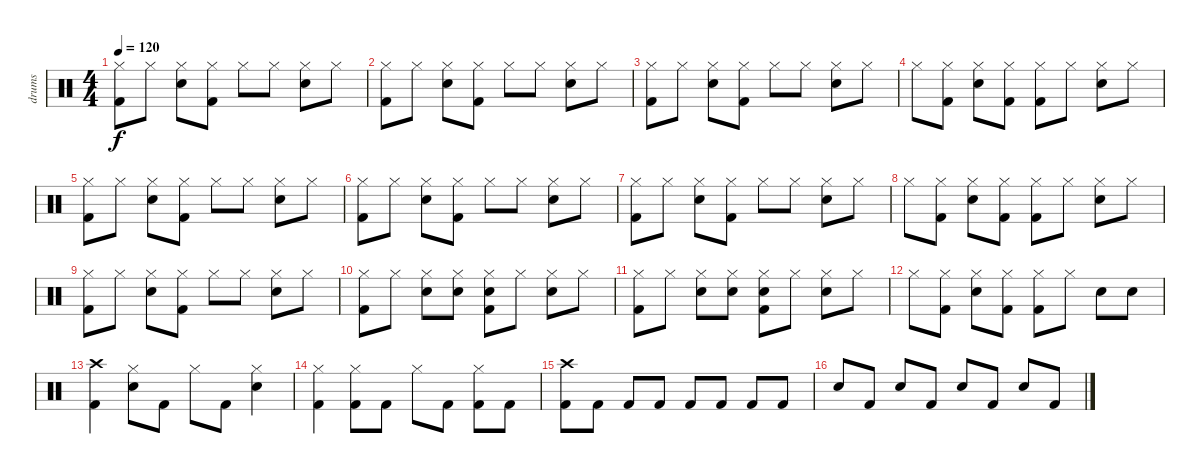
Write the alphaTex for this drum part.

\track ("drums" "drums") {instrument percussion}
\staff {score}
\articulation defaults
\ts (4 4)
\tempo 120
\clef neutral
\ks c
("Kick (hit) 2" "Hi-Hat (closed)").8{dy f} "Hi-Hat (closed)".8 ("Hi-Hat (closed)" "Snare (hit) 2").8 ("Hi-Hat (closed)" "Kick (hit) 2").8 "Hi-Hat (closed)".8 "Hi-Hat (closed)".8 ("Hi-Hat (closed)" "Snare (hit) 2").8 "Hi-Hat (closed)".8 |
("Kick (hit) 2" "Hi-Hat (closed)").8 "Hi-Hat (closed)".8 ("Hi-Hat (closed)" "Snare (hit) 2").8 ("Hi-Hat (closed)" "Kick (hit) 2").8 "Hi-Hat (closed)".8 "Hi-Hat (closed)".8 ("Hi-Hat (closed)" "Snare (hit) 2").8 "Hi-Hat (closed)".8 |
("Kick (hit) 2" "Hi-Hat (closed)").8 "Hi-Hat (closed)".8 ("Hi-Hat (closed)" "Snare (hit) 2").8 ("Hi-Hat (closed)" "Kick (hit) 2").8 "Hi-Hat (closed)".8 "Hi-Hat (closed)".8 ("Hi-Hat (closed)" "Snare (hit) 2").8 "Hi-Hat (closed)".8 |
"Hi-Hat (closed)".8 ("Hi-Hat (closed)" "Kick (hit) 2").8 ("Hi-Hat (closed)" "Snare (hit) 2").8 ("Hi-Hat (closed)" "Kick (hit) 2").8 ("Hi-Hat (closed)" "Kick (hit) 2").8 "Hi-Hat (closed)".8 ("Hi-Hat (closed)" "Snare (hit) 2").8 "Hi-Hat (closed)".8 |
("Kick (hit) 2" "Hi-Hat (closed)").8 "Hi-Hat (closed)".8 ("Hi-Hat (closed)" "Snare (hit) 2").8 ("Hi-Hat (closed)" "Kick (hit) 2").8 "Hi-Hat (closed)".8 "Hi-Hat (closed)".8 ("Hi-Hat (closed)" "Snare (hit) 2").8 "Hi-Hat (closed)".8 |
("Kick (hit) 2" "Hi-Hat (closed)").8 "Hi-Hat (closed)".8 ("Hi-Hat (closed)" "Snare (hit) 2").8 ("Hi-Hat (closed)" "Kick (hit) 2").8 "Hi-Hat (closed)".8 "Hi-Hat (closed)".8 ("Hi-Hat (closed)" "Snare (hit) 2").8 "Hi-Hat (closed)".8 |
("Kick (hit) 2" "Hi-Hat (closed)").8 "Hi-Hat (closed)".8 ("Hi-Hat (closed)" "Snare (hit) 2").8 ("Hi-Hat (closed)" "Kick (hit) 2").8 "Hi-Hat (closed)".8 "Hi-Hat (closed)".8 ("Hi-Hat (closed)" "Snare (hit) 2").8 "Hi-Hat (closed)".8 |
"Hi-Hat (closed)".8 ("Hi-Hat (closed)" "Kick (hit) 2").8 ("Hi-Hat (closed)" "Snare (hit) 2").8 ("Hi-Hat (closed)" "Kick (hit) 2").8 ("Hi-Hat (closed)" "Kick (hit) 2").8 "Hi-Hat (closed)".8 ("Hi-Hat (closed)" "Snare (hit) 2").8 "Hi-Hat (closed)".8 |
("Kick (hit) 2" "Hi-Hat (closed)").8 "Hi-Hat (closed)".8 ("Hi-Hat (closed)" "Snare (hit) 2").8 ("Hi-Hat (closed)" "Kick (hit) 2").8 "Hi-Hat (closed)".8 "Hi-Hat (closed)".8 ("Hi-Hat (closed)" "Snare (hit) 2").8 "Hi-Hat (closed)".8 |
("Hi-Hat (closed)" "Kick (hit) 2").8 "Hi-Hat (closed)".8 ("Hi-Hat (closed)" "Snare (hit) 2").8 ("Hi-Hat (closed)" "Snare (hit) 2").8 ("Hi-Hat (closed)" "Snare (hit) 2" "Kick (hit) 2").8 "Hi-Hat (closed)".8 ("Hi-Hat (closed)" "Snare (hit) 2").8 "Hi-Hat (closed)".8 |
("Hi-Hat (closed)" "Kick (hit) 2").8 "Hi-Hat (closed)".8 ("Hi-Hat (closed)" "Snare (hit) 2").8 ("Hi-Hat (closed)" "Snare (hit) 2").8 ("Hi-Hat (closed)" "Snare (hit) 2" "Kick (hit) 2").8 "Hi-Hat (closed)".8 ("Hi-Hat (closed)" "Snare (hit) 2").8 "Hi-Hat (closed)".8 |
"Hi-Hat (closed)".8 ("Hi-Hat (closed)" "Kick (hit) 2").8 ("Hi-Hat (closed)" "Snare (hit) 2").8 ("Hi-Hat (closed)" "Kick (hit) 2").8 ("Hi-Hat (closed)" "Kick (hit) 2").8 "Hi-Hat (closed)".8 "Snare (hit) 2".8 "Snare (hit) 2".8 |
("Crash high (hit)" "Kick (hit) 2").4 ("Hi-Hat (closed)" "Snare (hit) 2").8 "Kick (hit) 2".8 "Hi-Hat (closed)".8 "Kick (hit) 2".8 ("Hi-Hat (closed)" "Snare (hit) 2").4 |
("Kick (hit) 2" "Hi-Hat (closed)").4 ("Hi-Hat (closed)" "Kick (hit) 2").8 "Kick (hit) 2".8 "Hi-Hat (closed)".8 "Kick (hit) 2".8 ("Hi-Hat (closed)" "Kick (hit) 2").8 "Kick (hit) 2".8 |
("Crash high (hit)" "Kick (hit) 2").8 "Kick (hit) 2".8 "Kick (hit) 2".8 "Kick (hit) 2".8 "Kick (hit) 2".8 "Kick (hit) 2".8 "Kick (hit) 2".8 "Kick (hit) 2".8 |
"Snare (hit) 2".8 "Kick (hit) 2".8 "Snare (hit) 2".8 "Kick (hit) 2".8 "Snare (hit) 2".8 "Kick (hit) 2".8 "Snare (hit) 2".8 "Kick (hit) 2".8
